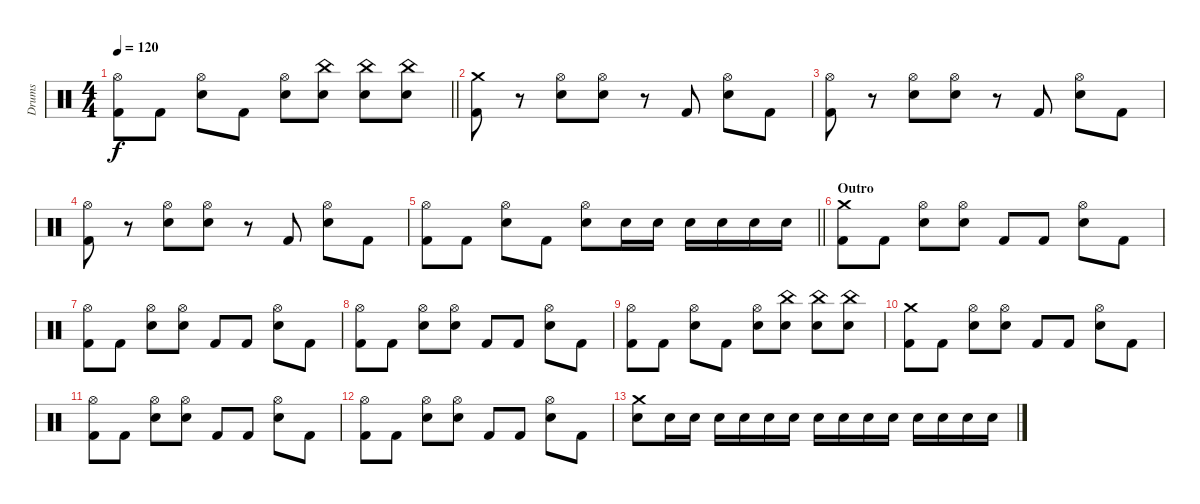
\track ("Drums" "Drums") {instrument percussion}
\staff {score}
\articulation defaults
\ts (4 4)
\tempo 120
\clef neutral
\barLineRight lightlight
\ks c
("Hi-Hat (open)" "Kick (hit) 2").8{dy f} "Kick (hit) 2".8 ("Hi-Hat (open)" "Electric Snare (hit)").8 "Kick (hit) 2".8 ("Hi-Hat (open)" "Electric Snare (hit)").8 ("China (hit)" "Electric Snare (hit)").8 ("China (hit)" "Electric Snare (hit)").8 ("China (hit)" "Electric Snare (hit)").8 |
("Crash medium (hit)" "Kick (hit) 2").8 r.8 ("Hi-Hat (open)" "Electric Snare (hit)").8 ("Hi-Hat (open)" "Electric Snare (hit)").8 r.8 "Kick (hit) 2".8 ("Hi-Hat (open)" "Electric Snare (hit)").8 "Kick (hit) 2".8 |
("Hi-Hat (open)" "Kick (hit) 2").8 r.8 ("Hi-Hat (open)" "Electric Snare (hit)").8 ("Hi-Hat (open)" "Electric Snare (hit)").8 r.8 "Kick (hit) 2".8 ("Hi-Hat (open)" "Electric Snare (hit)").8 "Kick (hit) 2".8 |
("Hi-Hat (open)" "Kick (hit) 2").8 r.8 ("Hi-Hat (open)" "Electric Snare (hit)").8 ("Hi-Hat (open)" "Electric Snare (hit)").8 r.8 "Kick (hit) 2".8 ("Hi-Hat (open)" "Electric Snare (hit)").8 "Kick (hit) 2".8 |
\barLineRight lightlight
("Hi-Hat (open)" "Kick (hit) 2").8 "Kick (hit) 2".8 ("Hi-Hat (open)" "Electric Snare (hit)").8 "Kick (hit) 2".8 ("Hi-Hat (open)" "Electric Snare (hit)").8 "Electric Snare (hit)".16 "Electric Snare (hit)".16 "Electric Snare (hit)".16 "Electric Snare (hit)".16 "Electric Snare (hit)".16 "Electric Snare (hit)".16 |
\section ("" "Outro")
("Crash medium (hit)" "Kick (hit) 2").8 "Kick (hit) 2".8 ("Hi-Hat (open)" "Electric Snare (hit)").8 ("Hi-Hat (open)" "Electric Snare (hit)").8 "Kick (hit) 2".8 "Kick (hit) 2".8 ("Hi-Hat (open)" "Electric Snare (hit)").8 "Kick (hit) 2".8 |
("Hi-Hat (open)" "Kick (hit) 2").8 "Kick (hit) 2".8 ("Hi-Hat (open)" "Electric Snare (hit)").8 ("Hi-Hat (open)" "Electric Snare (hit)").8 "Kick (hit) 2".8 "Kick (hit) 2".8 ("Hi-Hat (open)" "Electric Snare (hit)").8 "Kick (hit) 2".8 |
("Hi-Hat (open)" "Kick (hit) 2").8 "Kick (hit) 2".8 ("Hi-Hat (open)" "Electric Snare (hit)").8 ("Hi-Hat (open)" "Electric Snare (hit)").8 "Kick (hit) 2".8 "Kick (hit) 2".8 ("Hi-Hat (open)" "Electric Snare (hit)").8 "Kick (hit) 2".8 |
("Hi-Hat (open)" "Kick (hit) 2").8 "Kick (hit) 2".8 ("Hi-Hat (open)" "Electric Snare (hit)").8 "Kick (hit) 2".8 ("Hi-Hat (open)" "Electric Snare (hit)").8 ("China (hit)" "Electric Snare (hit)").8 ("China (hit)" "Electric Snare (hit)").8 ("China (hit)" "Electric Snare (hit)").8 |
("Crash medium (hit)" "Kick (hit) 2").8 "Kick (hit) 2".8 ("Hi-Hat (open)" "Electric Snare (hit)").8 ("Hi-Hat (open)" "Electric Snare (hit)").8 "Kick (hit) 2".8 "Kick (hit) 2".8 ("Hi-Hat (open)" "Electric Snare (hit)").8 "Kick (hit) 2".8 |
("Hi-Hat (open)" "Kick (hit) 2").8 "Kick (hit) 2".8 ("Hi-Hat (open)" "Electric Snare (hit)").8 ("Hi-Hat (open)" "Electric Snare (hit)").8 "Kick (hit) 2".8 "Kick (hit) 2".8 ("Hi-Hat (open)" "Electric Snare (hit)").8 "Kick (hit) 2".8 |
("Hi-Hat (open)" "Kick (hit) 2").8 "Kick (hit) 2".8 ("Hi-Hat (open)" "Electric Snare (hit)").8 ("Hi-Hat (open)" "Electric Snare (hit)").8 "Kick (hit) 2".8 "Kick (hit) 2".8 ("Hi-Hat (open)" "Electric Snare (hit)").8 "Kick (hit) 2".8 |
("Crash medium (hit)" "Electric Snare (hit)").8 "Electric Snare (hit)".16 "Electric Snare (hit)".16 "Electric Snare (hit)".16 "Electric Snare (hit)".16 "Electric Snare (hit)".16 "Electric Snare (hit)".16 "Electric Snare (hit)".16 "Electric Snare (hit)".16 "Electric Snare (hit)".16 "Electric Snare (hit)".16 "Electric Snare (hit)".16 "Electric Snare (hit)".16 "Electric Snare (hit)".16 "Electric Snare (hit)".16
